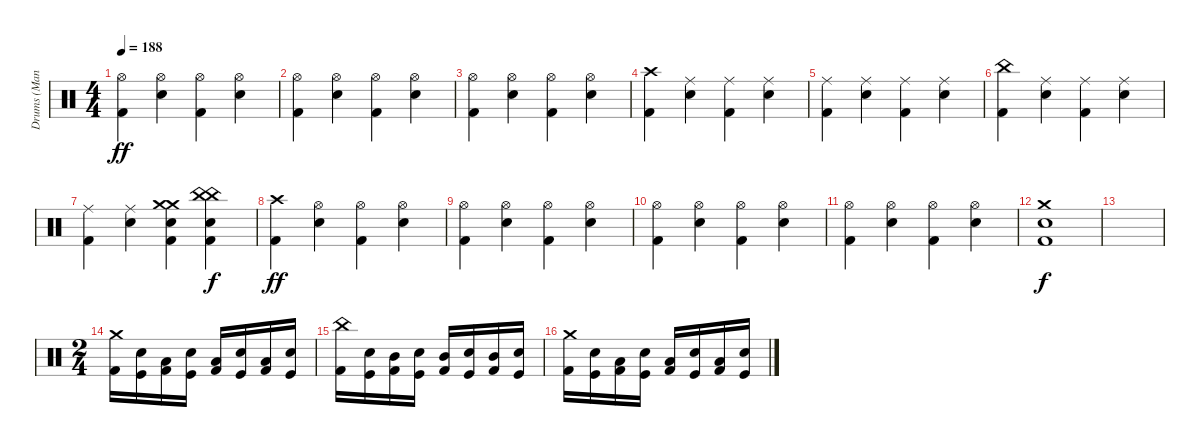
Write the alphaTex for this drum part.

\track ("Drums (Manheim)" "Drums (Man") {instrument percussion}
\staff {score}
\articulation defaults
\ts (4 4)
\tempo 188
\clef neutral
\ks c
("Hi-Hat (open)" "Kick (hit) 2").4{dy ff} ("Hi-Hat (open)" "Electric Snare (hit)").4 ("Hi-Hat (open)" "Kick (hit) 2").4 ("Hi-Hat (open)" "Electric Snare (hit)").4 |
("Hi-Hat (open)" "Kick (hit) 2").4 ("Hi-Hat (open)" "Electric Snare (hit)").4 ("Hi-Hat (open)" "Kick (hit) 2").4 ("Hi-Hat (open)" "Electric Snare (hit)").4 |
("Hi-Hat (open)" "Kick (hit) 2").4 ("Hi-Hat (open)" "Electric Snare (hit)").4 ("Hi-Hat (open)" "Kick (hit) 2").4 ("Hi-Hat (open)" "Electric Snare (hit)").4 |
("Crash high (hit)" "Kick (hit) 2").4 ("Ride (middle)" "Electric Snare (hit)").4 ("Ride (middle)" "Kick (hit) 2").4 ("Ride (middle)" "Electric Snare (hit)").4 |
("Ride (middle)" "Kick (hit) 2").4 ("Ride (middle)" "Electric Snare (hit)").4 ("Ride (middle)" "Kick (hit) 2").4 ("Ride (middle)" "Electric Snare (hit)").4 |
("China (hit)" "Kick (hit) 2").4 ("Ride (middle)" "Electric Snare (hit)").4 ("Ride (middle)" "Kick (hit) 2").4 ("Ride (middle)" "Electric Snare (hit)").4 |
("Ride (middle)" "Kick (hit) 2").4 ("Ride (middle)" "Electric Snare (hit)").4 ("Crash medium (hit)" "Crash medium (hit)" "Electric Snare (hit)" "Kick (hit) 2").4 ("China (hit)" "China (hit)" "Electric Snare (hit)" "Kick (hit) 2").4{dy f} |
("Crash high (hit)" "Kick (hit) 2").4{dy ff} ("Hi-Hat (open)" "Electric Snare (hit)").4 ("Hi-Hat (open)" "Kick (hit) 2").4 ("Hi-Hat (open)" "Electric Snare (hit)").4 |
("Hi-Hat (open)" "Kick (hit) 2").4 ("Hi-Hat (open)" "Electric Snare (hit)").4 ("Hi-Hat (open)" "Kick (hit) 2").4 ("Hi-Hat (open)" "Electric Snare (hit)").4 |
("Hi-Hat (open)" "Kick (hit) 2").4 ("Hi-Hat (open)" "Electric Snare (hit)").4 ("Hi-Hat (open)" "Kick (hit) 2").4 ("Hi-Hat (open)" "Electric Snare (hit)").4 |
("Hi-Hat (open)" "Kick (hit) 2").4 ("Hi-Hat (open)" "Electric Snare (hit)").4 ("Hi-Hat (open)" "Kick (hit) 2").4 ("Hi-Hat (open)" "Electric Snare (hit)").4 |
("Crash medium (hit)" "Electric Snare (hit)" "Kick (hit) 2").1{dy f} |
|
\ts (2 4)
("Crash medium (hit)" "Kick (hit) 2").16 ("Electric Snare (hit)" "Kick (hit)").16 ("Low Tom (hit)" "Kick (hit) 2").16 ("Electric Snare (hit)" "Kick (hit)").16 ("Low Tom (hit)" "Kick (hit) 2").16 ("Electric Snare (hit)" "Kick (hit)").16 ("Low Tom (hit)" "Kick (hit) 2").16 ("Electric Snare (hit)" "Kick (hit)").16 |
("China (hit)" "Kick (hit) 2").16 ("Electric Snare (hit)" "Kick (hit)").16 ("Mid Tom (hit)" "Kick (hit) 2").16 ("Electric Snare (hit)" "Kick (hit)").16 ("Mid Tom (hit)" "Kick (hit) 2").16 ("Electric Snare (hit)" "Kick (hit)").16 ("Mid Tom (hit)" "Kick (hit) 2").16 ("Electric Snare (hit)" "Kick (hit)").16 |
("Crash medium (hit)" "Kick (hit) 2").16 ("Electric Snare (hit)" "Kick (hit)").16 ("Low Tom (hit)" "Kick (hit) 2").16 ("Electric Snare (hit)" "Kick (hit)").16 ("Low Tom (hit)" "Kick (hit) 2").16 ("Electric Snare (hit)" "Kick (hit)").16 ("Low Tom (hit)" "Kick (hit) 2").16 ("Electric Snare (hit)" "Kick (hit)").16
